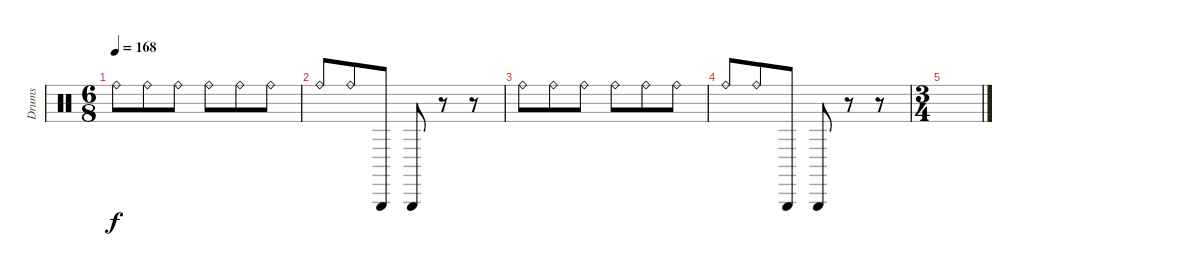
\track ("Drums" "Drums") {instrument percussion}
\staff {score}
\articulation defaults
\ts (6 8)
\tempo 168
\clef neutral
\ks c "Ride (bell)".8{dy f} "Ride (bell)".8 "Ride (bell)".8 "Ride (bell)".8 "Ride (bell)".8 "Ride (bell)".8
|
"Ride (bell)".8 "Ride (bell)".8 "Triangle (hit)".8 "Triangle (hit)".8 r.8 r.8 |
"Ride (bell)".8 "Ride (bell)".8 "Ride (bell)".8 "Ride (bell)".8 "Ride (bell)".8 "Ride (bell)".8 |
"Ride (bell)".8 "Ride (bell)".8 "Triangle (hit)".8 "Triangle (hit)".8 r.8 r.8 |
\ts (3 4)
